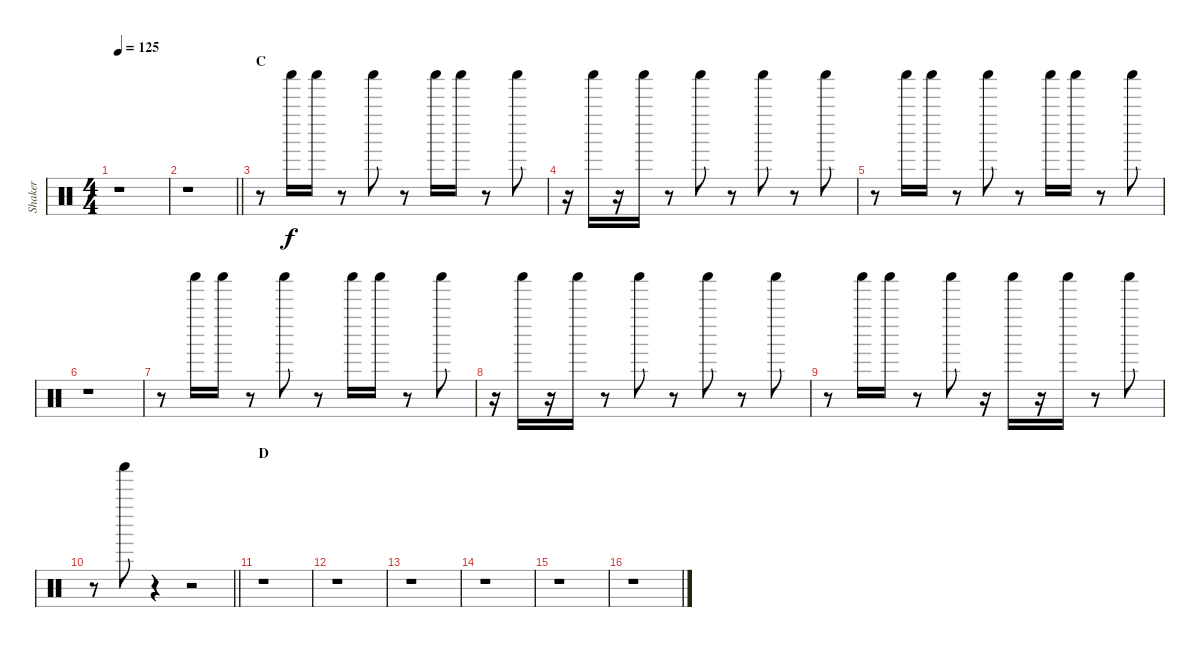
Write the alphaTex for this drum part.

\track ("Shaker" "Shaker") {instrument percussion}
\staff {score}
\articulation defaults
\ts (4 4)
\tempo 125
\clef neutral
\ks c
r.1{dy f} |
\barLineRight lightlight
r.1 |
\section ("" "C")
r.8 "Shaker (hit)".16 "Shaker (hit)".16 r.8 "Shaker (hit)".8 r.8 "Shaker (hit)".16 "Shaker (hit)".16 r.8 "Shaker (hit)".8 |
r.16 "Shaker (hit)".16 r.16 "Shaker (hit)".16 r.8 "Shaker (hit)".8 r.8 "Shaker (hit)".8 r.8 "Shaker (hit)".8 |
r.8 "Shaker (hit)".16 "Shaker (hit)".16 r.8 "Shaker (hit)".8 r.8 "Shaker (hit)".16 "Shaker (hit)".16 r.8 "Shaker (hit)".8 |
r.1 |
r.8 "Shaker (hit)".16 "Shaker (hit)".16 r.8 "Shaker (hit)".8 r.8 "Shaker (hit)".16 "Shaker (hit)".16 r.8 "Shaker (hit)".8 |
r.16 "Shaker (hit)".16 r.16 "Shaker (hit)".16 r.8 "Shaker (hit)".8 r.8 "Shaker (hit)".8 r.8 "Shaker (hit)".8 |
r.8 "Shaker (hit)".16 "Shaker (hit)".16 r.8 "Shaker (hit)".8 r.16 "Shaker (hit)".16 r.16 "Shaker (hit)".16 r.8 "Shaker (hit)".8 |
\barLineRight lightlight
r.8 "Shaker (hit)".8 r.4 r.2 |
\section ("" "D")
r.1 |
r.1 |
r.1 |
r.1 |
r.1 |
r.1
